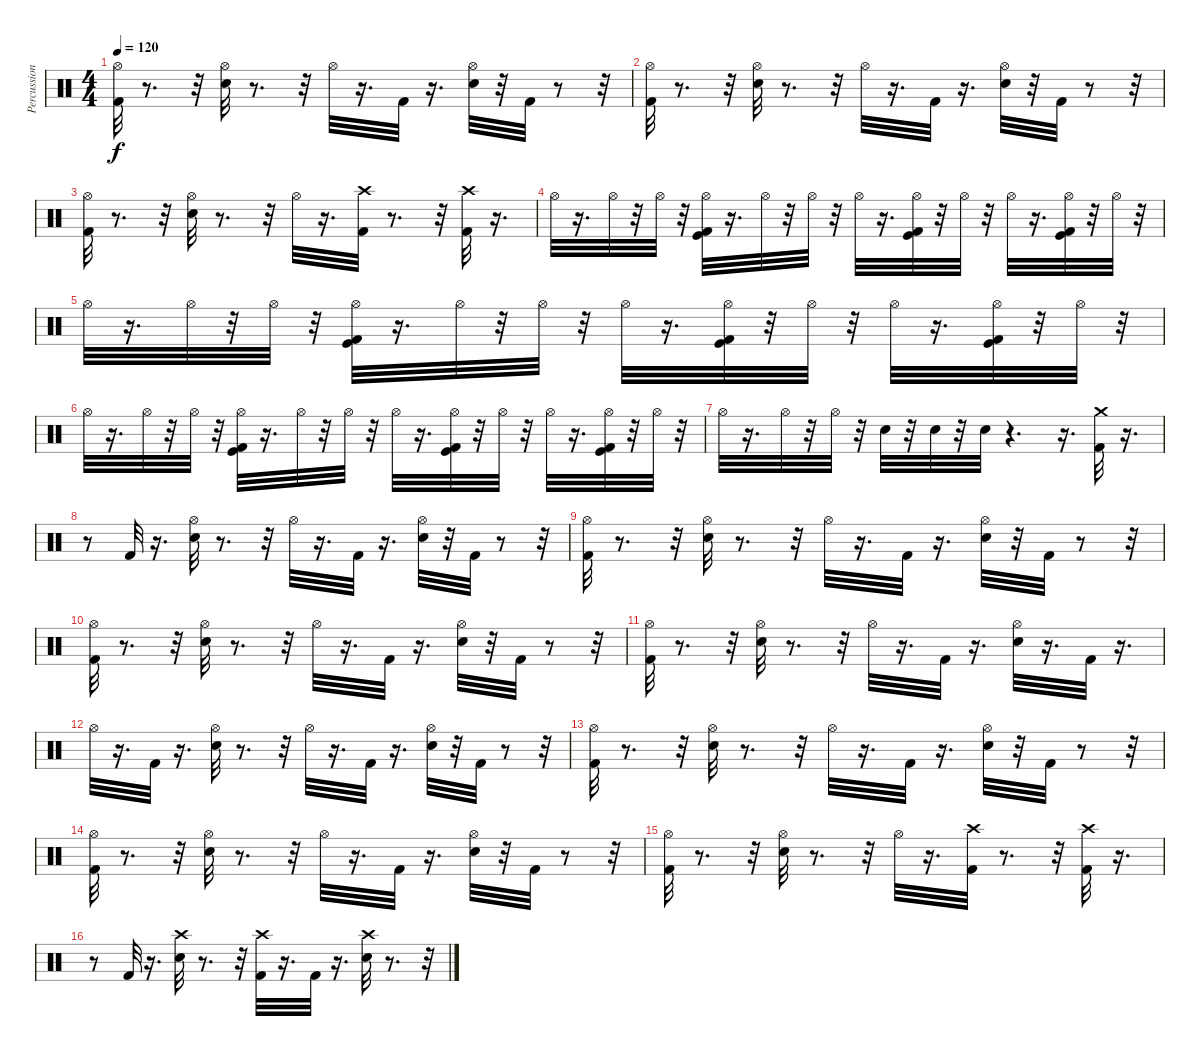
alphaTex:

\track ("Percussion" "Percussion") {instrument percussion}
\staff {score}
\articulation defaults
\ts (4 4)
\tempo 120
\clef neutral
\ks c
("Kick (hit) 2" "Hi-Hat (open)").32{dy f} r.8{d} r.32 ("Electric Snare (hit)" "Hi-Hat (open)").32 r.8{d} r.32 "Hi-Hat (open)".32 r.16{d} "Kick (hit) 2".32 r.16{d} ("Electric Snare (hit)" "Hi-Hat (open)").32 r.32 "Kick (hit) 2".32 r.8 r.32 |
("Kick (hit) 2" "Hi-Hat (open)").32 r.8{d} r.32 ("Electric Snare (hit)" "Hi-Hat (open)").32 r.8{d} r.32 "Hi-Hat (open)".32 r.16{d} "Kick (hit) 2".32 r.16{d} ("Electric Snare (hit)" "Hi-Hat (open)").32 r.32 "Kick (hit) 2".32 r.8 r.32 |
("Kick (hit) 2" "Hi-Hat (open)").32 r.8{d} r.32 ("Electric Snare (hit)" "Hi-Hat (open)").32 r.8{d} r.32 "Hi-Hat (open)".32 r.16{d} ("Crash high (hit)" "Kick (hit) 2").32 r.8{d} r.32 ("Crash high (hit)" "Kick (hit) 2").32 r.16{d} |
"Hi-Hat (open)".32 r.16{d} "Hi-Hat (open)".32 r.32 "Hi-Hat (open)".32 r.32 ("Hi-Hat (open)" "Kick (hit) 2" "Kick (hit)").32 r.16{d} "Hi-Hat (open)".32 r.32 "Hi-Hat (open)".32 r.32 "Hi-Hat (open)".32 r.16{d} ("Hi-Hat (open)" "Kick (hit) 2" "Kick (hit)").32 r.32 "Hi-Hat (open)".32 r.32 "Hi-Hat (open)".32 r.16{d} ("Hi-Hat (open)" "Kick (hit)" "Kick (hit) 2").32 r.32 "Hi-Hat (open)".32 r.32 |
"Hi-Hat (open)".32 r.16{d} "Hi-Hat (open)".32 r.32 "Hi-Hat (open)".32 r.32 ("Hi-Hat (open)" "Kick (hit) 2" "Kick (hit)").32 r.16{d} "Hi-Hat (open)".32 r.32 "Hi-Hat (open)".32 r.32 "Hi-Hat (open)".32 r.16{d} ("Hi-Hat (open)" "Kick (hit) 2" "Kick (hit)").32 r.32 "Hi-Hat (open)".32 r.32 "Hi-Hat (open)".32 r.16{d} ("Hi-Hat (open)" "Kick (hit)" "Kick (hit) 2").32 r.32 "Hi-Hat (open)".32 r.32 |
"Hi-Hat (open)".32 r.16{d} "Hi-Hat (open)".32 r.32 "Hi-Hat (open)".32 r.32 ("Hi-Hat (open)" "Kick (hit) 2" "Kick (hit)").32 r.16{d} "Hi-Hat (open)".32 r.32 "Hi-Hat (open)".32 r.32 "Hi-Hat (open)".32 r.16{d} ("Hi-Hat (open)" "Kick (hit) 2" "Kick (hit)").32 r.32 "Hi-Hat (open)".32 r.32 "Hi-Hat (open)".32 r.16{d} ("Hi-Hat (open)" "Kick (hit)" "Kick (hit) 2").32 r.32 "Hi-Hat (open)".32 r.32 |
"Hi-Hat (open)".32 r.16{d} "Hi-Hat (open)".32 r.32 "Hi-Hat (open)".32 r.32 "Electric Snare (hit)".32 r.32 "Electric Snare (hit)".32 r.32 "Electric Snare (hit)".32 r.4{d} r.16{d} ("Crash medium (hit)" "Kick (hit) 2").32 r.16{d} |
r.8 "Kick (hit) 2".32 r.16{d} ("Hi-Hat (open)" "Electric Snare (hit)").32 r.8{d} r.32 "Hi-Hat (open)".32 r.16{d} "Kick (hit) 2".32 r.16{d} ("Electric Snare (hit)" "Hi-Hat (open)").32 r.32 "Kick (hit) 2".32 r.8 r.32 |
("Kick (hit) 2" "Hi-Hat (open)").32 r.8{d} r.32 ("Electric Snare (hit)" "Hi-Hat (open)").32 r.8{d} r.32 "Hi-Hat (open)".32 r.16{d} "Kick (hit) 2".32 r.16{d} ("Electric Snare (hit)" "Hi-Hat (open)").32 r.32 "Kick (hit) 2".32 r.8 r.32 |
("Kick (hit) 2" "Hi-Hat (open)").32 r.8{d} r.32 ("Electric Snare (hit)" "Hi-Hat (open)").32 r.8{d} r.32 "Hi-Hat (open)".32 r.16{d} "Kick (hit) 2".32 r.16{d} ("Electric Snare (hit)" "Hi-Hat (open)").32 r.32 "Kick (hit) 2".32 r.8 r.32 |
("Kick (hit) 2" "Hi-Hat (open)").32 r.8{d} r.32 ("Electric Snare (hit)" "Hi-Hat (open)").32 r.8{d} r.32 "Hi-Hat (open)".32 r.16{d} "Kick (hit) 2".32 r.16{d} ("Electric Snare (hit)" "Hi-Hat (open)").32 r.16{d} "Kick (hit) 2".32 r.16{d} |
"Hi-Hat (open)".32 r.16{d} "Kick (hit) 2".32 r.16{d} ("Hi-Hat (open)" "Electric Snare (hit)").32 r.8{d} r.32 "Hi-Hat (open)".32 r.16{d} "Kick (hit) 2".32 r.16{d} ("Electric Snare (hit)" "Hi-Hat (open)").32 r.32 "Kick (hit) 2".32 r.8 r.32 |
("Kick (hit) 2" "Hi-Hat (open)").32 r.8{d} r.32 ("Electric Snare (hit)" "Hi-Hat (open)").32 r.8{d} r.32 "Hi-Hat (open)".32 r.16{d} "Kick (hit) 2".32 r.16{d} ("Electric Snare (hit)" "Hi-Hat (open)").32 r.32 "Kick (hit) 2".32 r.8 r.32 |
("Kick (hit) 2" "Hi-Hat (open)").32 r.8{d} r.32 ("Electric Snare (hit)" "Hi-Hat (open)").32 r.8{d} r.32 "Hi-Hat (open)".32 r.16{d} "Kick (hit) 2".32 r.16{d} ("Electric Snare (hit)" "Hi-Hat (open)").32 r.32 "Kick (hit) 2".32 r.8 r.32 |
("Kick (hit) 2" "Hi-Hat (open)").32 r.8{d} r.32 ("Electric Snare (hit)" "Hi-Hat (open)").32 r.8{d} r.32 "Hi-Hat (open)".32 r.16{d} ("Crash high (hit)" "Kick (hit) 2").32 r.8{d} r.32 ("Crash high (hit)" "Kick (hit) 2").32 r.16{d} |
r.8 "Kick (hit) 2".32 r.16{d} ("Electric Snare (hit)" "Crash high (hit)").32 r.8{d} r.32 ("Kick (hit) 2" "Crash high (hit)").32 r.16{d} "Kick (hit) 2".32 r.16{d} ("Electric Snare (hit)" "Crash high (hit)").32 r.8{d} r.32
